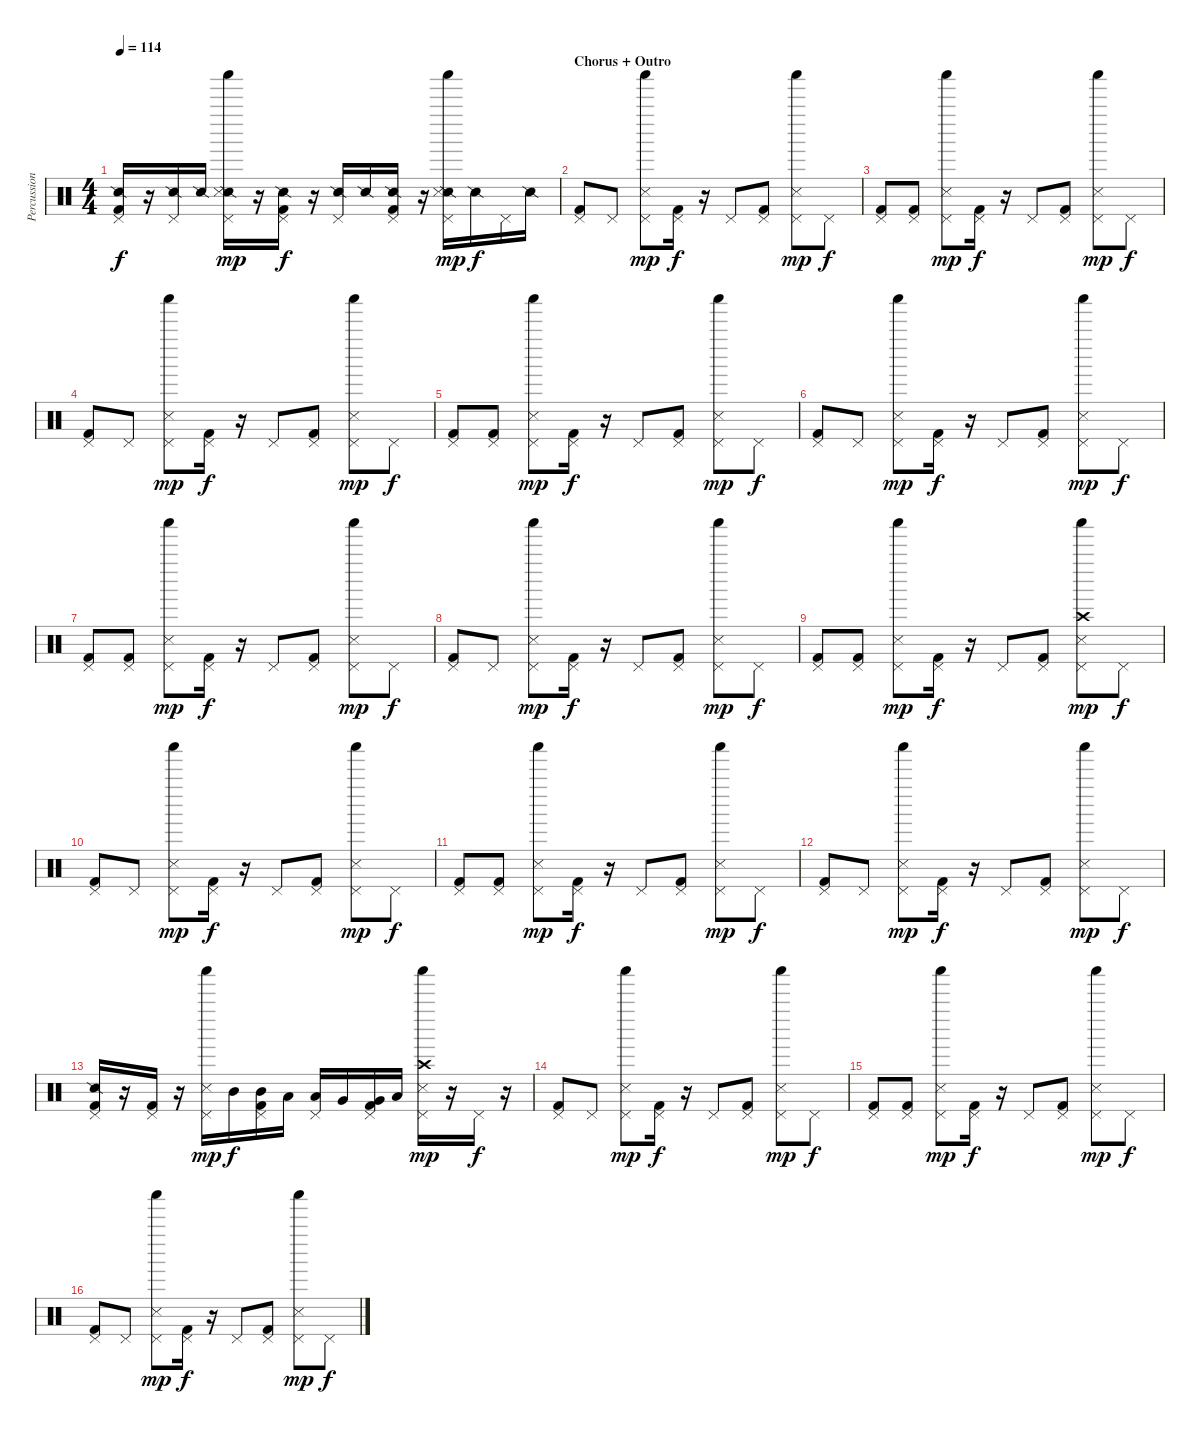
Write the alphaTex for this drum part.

\track ("Percussion" "Percussion") {instrument percussion}
\staff {score}
\articulation defaults
\ts (4 4)
\tempo 114
\clef neutral
\ks c
("Pedal Hi-Hat (hit)" "Snare (side stick) 2" "Kick (hit) 2").16{dy f} r.16 ("Pedal Hi-Hat (hit)" "Snare (side stick) 2").16 "Snare (side stick) 2".16 ("Pedal Hi-Hat (hit)" "Snare (side stick) 2" "Snare (side stick) 3" "Shaker (hit)").16{dy mp} r.16 ("Pedal Hi-Hat (hit)" "Snare (side stick) 2" "Kick (hit) 2").16{dy f} r.16 ("Pedal Hi-Hat (hit)" "Snare (side stick) 2").16 "Snare (side stick) 2".16 ("Pedal Hi-Hat (hit)" "Snare (side stick) 2" "Kick (hit) 2").16 r.16 ("Pedal Hi-Hat (hit)" "Snare (side stick) 2" "Snare (side stick) 3" "Shaker (hit)").16{dy mp} "Snare (side stick) 2".16{dy f} "Pedal Hi-Hat (hit)".16 "Snare (side stick) 2".16 |
\section ("" "Chorus + Outro")
("Pedal Hi-Hat (hit)" "Kick (hit) 2").8 "Pedal Hi-Hat (hit)".8 ("Pedal Hi-Hat (hit)" "Snare (side stick) 3" "Shaker (hit)").8{dy mp} ("Pedal Hi-Hat (hit)" "Kick (hit) 2").16{dy f} r.16 "Pedal Hi-Hat (hit)".8 ("Pedal Hi-Hat (hit)" "Kick (hit) 2").8 ("Pedal Hi-Hat (hit)" "Snare (side stick) 3" "Shaker (hit)").8{dy mp} "Pedal Hi-Hat (hit)".8{dy f} |
("Pedal Hi-Hat (hit)" "Kick (hit) 2").8 ("Pedal Hi-Hat (hit)" "Kick (hit) 2").8 ("Pedal Hi-Hat (hit)" "Snare (side stick) 3" "Shaker (hit)").8{dy mp} ("Pedal Hi-Hat (hit)" "Kick (hit) 2").16{dy f} r.16 "Pedal Hi-Hat (hit)".8 ("Pedal Hi-Hat (hit)" "Kick (hit) 2").8 ("Pedal Hi-Hat (hit)" "Snare (side stick) 3" "Shaker (hit)").8{dy mp} "Pedal Hi-Hat (hit)".8{dy f} |
("Pedal Hi-Hat (hit)" "Kick (hit) 2").8 "Pedal Hi-Hat (hit)".8 ("Pedal Hi-Hat (hit)" "Snare (side stick) 3" "Shaker (hit)").8{dy mp} ("Pedal Hi-Hat (hit)" "Kick (hit) 2").16{dy f} r.16 "Pedal Hi-Hat (hit)".8 ("Pedal Hi-Hat (hit)" "Kick (hit) 2").8 ("Pedal Hi-Hat (hit)" "Snare (side stick) 3" "Shaker (hit)").8{dy mp} "Pedal Hi-Hat (hit)".8{dy f} |
("Pedal Hi-Hat (hit)" "Kick (hit) 2").8 ("Pedal Hi-Hat (hit)" "Kick (hit) 2").8 ("Pedal Hi-Hat (hit)" "Snare (side stick) 3" "Shaker (hit)").8{dy mp} ("Pedal Hi-Hat (hit)" "Kick (hit) 2").16{dy f} r.16 "Pedal Hi-Hat (hit)".8 ("Pedal Hi-Hat (hit)" "Kick (hit) 2").8 ("Pedal Hi-Hat (hit)" "Snare (side stick) 3" "Shaker (hit)").8{dy mp} "Pedal Hi-Hat (hit)".8{dy f} |
("Pedal Hi-Hat (hit)" "Kick (hit) 2").8 "Pedal Hi-Hat (hit)".8 ("Pedal Hi-Hat (hit)" "Snare (side stick) 3" "Shaker (hit)").8{dy mp} ("Pedal Hi-Hat (hit)" "Kick (hit) 2").16{dy f} r.16 "Pedal Hi-Hat (hit)".8 ("Pedal Hi-Hat (hit)" "Kick (hit) 2").8 ("Pedal Hi-Hat (hit)" "Snare (side stick) 3" "Shaker (hit)").8{dy mp} "Pedal Hi-Hat (hit)".8{dy f} |
("Pedal Hi-Hat (hit)" "Kick (hit) 2").8 ("Pedal Hi-Hat (hit)" "Kick (hit) 2").8 ("Pedal Hi-Hat (hit)" "Snare (side stick) 3" "Shaker (hit)").8{dy mp} ("Pedal Hi-Hat (hit)" "Kick (hit) 2").16{dy f} r.16 "Pedal Hi-Hat (hit)".8 ("Pedal Hi-Hat (hit)" "Kick (hit) 2").8 ("Pedal Hi-Hat (hit)" "Snare (side stick) 3" "Shaker (hit)").8{dy mp} "Pedal Hi-Hat (hit)".8{dy f} |
("Pedal Hi-Hat (hit)" "Kick (hit) 2").8 "Pedal Hi-Hat (hit)".8 ("Pedal Hi-Hat (hit)" "Snare (side stick) 3" "Shaker (hit)").8{dy mp} ("Pedal Hi-Hat (hit)" "Kick (hit) 2").16{dy f} r.16 "Pedal Hi-Hat (hit)".8 ("Pedal Hi-Hat (hit)" "Kick (hit) 2").8 ("Pedal Hi-Hat (hit)" "Snare (side stick) 3" "Shaker (hit)").8{dy mp} "Pedal Hi-Hat (hit)".8{dy f} |
("Pedal Hi-Hat (hit)" "Kick (hit) 2").8 ("Pedal Hi-Hat (hit)" "Kick (hit) 2").8 ("Pedal Hi-Hat (hit)" "Snare (side stick) 3" "Shaker (hit)").8{dy mp} ("Pedal Hi-Hat (hit)" "Kick (hit) 2").16{dy f} r.16 "Pedal Hi-Hat (hit)".8 ("Pedal Hi-Hat (hit)" "Kick (hit) 2").8 ("Pedal Hi-Hat (hit)" "Crash high (hit)" "Snare (side stick) 3" "Shaker (hit)").8{dy mp} "Pedal Hi-Hat (hit)".8{dy f} |
("Pedal Hi-Hat (hit)" "Kick (hit) 2").8 "Pedal Hi-Hat (hit)".8 ("Pedal Hi-Hat (hit)" "Snare (side stick) 3" "Shaker (hit)").8{dy mp} ("Pedal Hi-Hat (hit)" "Kick (hit) 2").16{dy f} r.16 "Pedal Hi-Hat (hit)".8 ("Pedal Hi-Hat (hit)" "Kick (hit) 2").8 ("Pedal Hi-Hat (hit)" "Snare (side stick) 3" "Shaker (hit)").8{dy mp} "Pedal Hi-Hat (hit)".8{dy f} |
("Pedal Hi-Hat (hit)" "Kick (hit) 2").8 ("Pedal Hi-Hat (hit)" "Kick (hit) 2").8 ("Pedal Hi-Hat (hit)" "Snare (side stick) 3" "Shaker (hit)").8{dy mp} ("Pedal Hi-Hat (hit)" "Kick (hit) 2").16{dy f} r.16 "Pedal Hi-Hat (hit)".8 ("Pedal Hi-Hat (hit)" "Kick (hit) 2").8 ("Pedal Hi-Hat (hit)" "Snare (side stick) 3" "Shaker (hit)").8{dy mp} "Pedal Hi-Hat (hit)".8{dy f} |
("Pedal Hi-Hat (hit)" "Kick (hit) 2").8 "Pedal Hi-Hat (hit)".8 ("Pedal Hi-Hat (hit)" "Snare (side stick) 3" "Shaker (hit)").8{dy mp} ("Pedal Hi-Hat (hit)" "Kick (hit) 2").16{dy f} r.16 "Pedal Hi-Hat (hit)".8 ("Pedal Hi-Hat (hit)" "Kick (hit) 2").8 ("Pedal Hi-Hat (hit)" "Snare (side stick) 3" "Shaker (hit)").8{dy mp} "Pedal Hi-Hat (hit)".8{dy f} |
("Pedal Hi-Hat (hit)" "Snare (side stick) 2" "Kick (hit) 2").16 r.16 ("Pedal Hi-Hat (hit)" "Kick (hit) 2").16 r.16 ("Pedal Hi-Hat (hit)" "Snare (side stick) 3" "Shaker (hit)").16{dy mp} "Mid Tom (hit)".16{dy f} ("Pedal Hi-Hat (hit)" "Mid Tom (hit)" "Kick (hit) 2").16 "Low Tom (hit)".16 ("Pedal Hi-Hat (hit)" "Low Tom (hit)").16 "Very Low Tom (hit)".16 ("Pedal Hi-Hat (hit)" "Very Low Tom (hit)" "Kick (hit) 2").16 "Low Floor Tom (hit)".16 ("Pedal Hi-Hat (hit)" "Crash high (hit)" "Snare (side stick) 3" "Shaker (hit)").16{dy mp} r.16 "Pedal Hi-Hat (hit)".16{dy f} r.16 |
("Pedal Hi-Hat (hit)" "Kick (hit) 2").8 "Pedal Hi-Hat (hit)".8 ("Pedal Hi-Hat (hit)" "Snare (side stick) 3" "Shaker (hit)").8{dy mp} ("Pedal Hi-Hat (hit)" "Kick (hit) 2").16{dy f} r.16 "Pedal Hi-Hat (hit)".8 ("Pedal Hi-Hat (hit)" "Kick (hit) 2").8 ("Pedal Hi-Hat (hit)" "Snare (side stick) 3" "Shaker (hit)").8{dy mp} "Pedal Hi-Hat (hit)".8{dy f} |
("Pedal Hi-Hat (hit)" "Kick (hit) 2").8 ("Pedal Hi-Hat (hit)" "Kick (hit) 2").8 ("Pedal Hi-Hat (hit)" "Snare (side stick) 3" "Shaker (hit)").8{dy mp} ("Pedal Hi-Hat (hit)" "Kick (hit) 2").16{dy f} r.16 "Pedal Hi-Hat (hit)".8 ("Pedal Hi-Hat (hit)" "Kick (hit) 2").8 ("Pedal Hi-Hat (hit)" "Snare (side stick) 3" "Shaker (hit)").8{dy mp} "Pedal Hi-Hat (hit)".8{dy f} |
("Pedal Hi-Hat (hit)" "Kick (hit) 2").8 "Pedal Hi-Hat (hit)".8 ("Pedal Hi-Hat (hit)" "Snare (side stick) 3" "Shaker (hit)").8{dy mp} ("Pedal Hi-Hat (hit)" "Kick (hit) 2").16{dy f} r.16 "Pedal Hi-Hat (hit)".8 ("Pedal Hi-Hat (hit)" "Kick (hit) 2").8 ("Pedal Hi-Hat (hit)" "Snare (side stick) 3" "Shaker (hit)").8{dy mp} "Pedal Hi-Hat (hit)".8{dy f}
